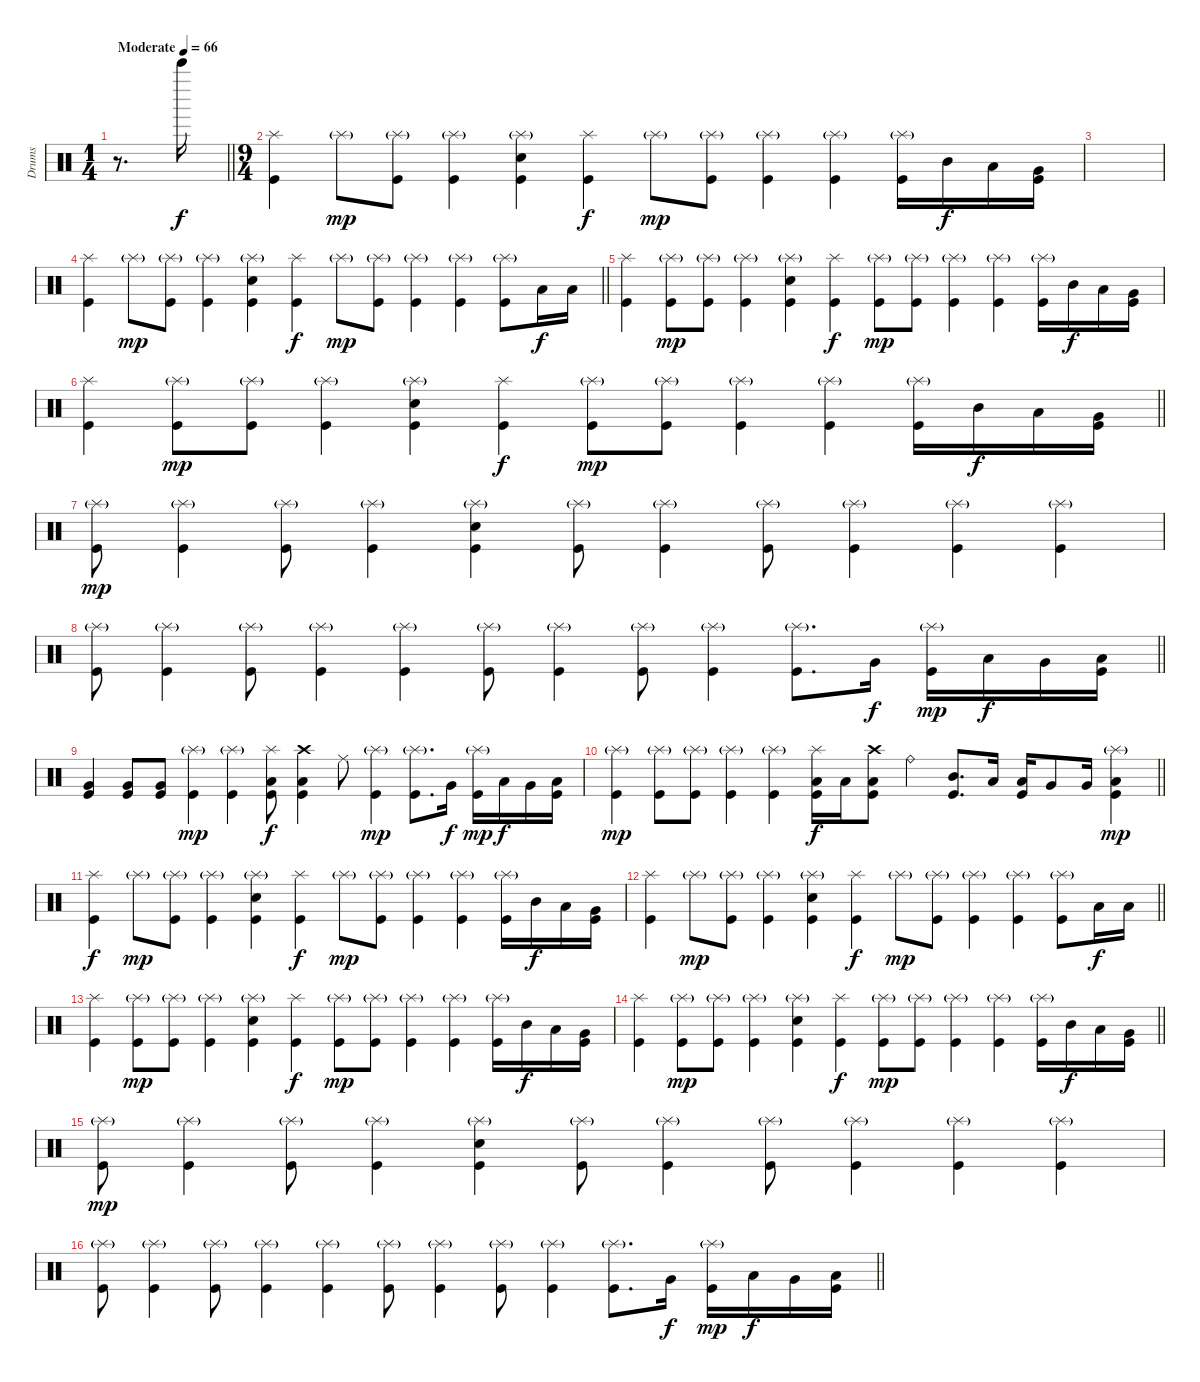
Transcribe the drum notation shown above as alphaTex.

\track ("Drums" "Drums") {instrument percussion}
\staff
\articulation defaults
\ts (1 4)
\tempo (66 "Moderate")
\clef neutral
\barLineRight lightlight
\ks c
r.8{d dy f} "Bell Tree (hit)".16 |
\ts (9 4)
("Splash (hit)" "Kick (hit)").4 "Splash (hit)"{g}.8{dy mp} ("Splash (hit)"{g} "Kick (hit)").8 ("Splash (hit)"{g} "Kick (hit)").4 ("Splash (hit)"{g} "Electric Snare (hit)" "Kick (hit)").4 ("Splash (hit)" "Kick (hit)").4{dy f} "Splash (hit)"{g}.8{dy mp} ("Splash (hit)"{g} "Kick (hit)").8 ("Splash (hit)"{g} "Kick (hit)").4 ("Splash (hit)"{g} "Kick (hit)").4 ("Splash (hit)"{g} "Kick (hit)").16 "Mid Tom (hit)".16{dy f} "Low Tom (hit)".16 ("Very Low Tom (hit)" "Kick (hit)").16 |
|
\barLineRight lightlight
("Splash (hit)" "Kick (hit)").4 "Splash (hit)"{g}.8{dy mp} ("Splash (hit)"{g} "Kick (hit)").8 ("Splash (hit)"{g} "Kick (hit)").4 ("Splash (hit)"{g} "Electric Snare (hit)" "Kick (hit)").4 ("Splash (hit)" "Kick (hit)").4{dy f} "Splash (hit)"{g}.8{dy mp} ("Splash (hit)"{g} "Kick (hit)").8 ("Splash (hit)"{g} "Kick (hit)").4 ("Splash (hit)"{g} "Kick (hit)").4 ("Splash (hit)"{g} "Kick (hit)").8 "Low Tom (hit)".16{dy f} "Low Tom (hit)".16 |
("Splash (hit)" "Kick (hit)").4 ("Splash (hit)"{g} "Kick (hit)").8{dy mp} ("Splash (hit)"{g} "Kick (hit)").8 ("Splash (hit)"{g} "Kick (hit)").4 ("Splash (hit)"{g} "Electric Snare (hit)" "Kick (hit)").4 ("Splash (hit)" "Kick (hit)").4{dy f} ("Splash (hit)"{g} "Kick (hit)").8{dy mp} ("Splash (hit)"{g} "Kick (hit)").8 ("Splash (hit)"{g} "Kick (hit)").4 ("Splash (hit)"{g} "Kick (hit)").4 ("Splash (hit)"{g} "Kick (hit)").16 "Mid Tom (hit)".16{dy f} "Low Tom (hit)".16 ("Very Low Tom (hit)" "Kick (hit)").16 |
\barLineRight lightlight
("Splash (hit)" "Kick (hit)").4 ("Splash (hit)"{g} "Kick (hit)").8{dy mp} ("Splash (hit)"{g} "Kick (hit)").8 ("Splash (hit)"{g} "Kick (hit)").4 ("Splash (hit)"{g} "Electric Snare (hit)" "Kick (hit)").4 ("Splash (hit)" "Kick (hit)").4{dy f} ("Splash (hit)"{g} "Kick (hit)").8{dy mp} ("Splash (hit)"{g} "Kick (hit)").8 ("Splash (hit)"{g} "Kick (hit)").4 ("Splash (hit)"{g} "Kick (hit)").4 ("Splash (hit)"{g} "Kick (hit)").16 "Mid Tom (hit)".16{dy f} "Low Tom (hit)".16 ("Very Low Tom (hit)" "Kick (hit)").16 |
("Splash (hit)"{g} "Kick (hit)").8{dy mp} ("Splash (hit)"{g} "Kick (hit)").4 ("Splash (hit)"{g} "Kick (hit)").8 ("Splash (hit)"{g} "Kick (hit)").4 ("Splash (hit)"{g} "Electric Snare (hit)" "Kick (hit)").4 ("Splash (hit)"{g} "Kick (hit)").8 ("Splash (hit)"{g} "Kick (hit)").4 ("Splash (hit)"{g} "Kick (hit)").8 ("Splash (hit)"{g} "Kick (hit)").4 ("Splash (hit)"{g} "Kick (hit)").4 ("Splash (hit)"{g} "Kick (hit)").4 |
\barLineRight lightlight
("Splash (hit)"{g} "Kick (hit)").8 ("Splash (hit)"{g} "Kick (hit)").4 ("Splash (hit)"{g} "Kick (hit)").8 ("Splash (hit)"{g} "Kick (hit)").4 ("Splash (hit)"{g} "Kick (hit)").4 ("Splash (hit)"{g} "Kick (hit)").8 ("Splash (hit)"{g} "Kick (hit)").4 ("Splash (hit)"{g} "Kick (hit)").8 ("Splash (hit)"{g} "Kick (hit)").4 ("Splash (hit)"{g} "Kick (hit)").8{d} "Very Low Tom (hit)".16{dy f} ("Splash (hit)"{g} "Kick (hit)").16{dy mp} "Low Floor Tom (hit)".16{dy f} "Very Low Tom (hit)".16 ("Low Tom (hit)" "Kick (hit)").16 |
("Very Low Tom (hit)" "Kick (hit)").4 ("Very Low Tom (hit)" "Kick (hit)").8 ("Very Low Tom (hit)" "Kick (hit)").8 ("Splash (hit)"{g} "Kick (hit)").4{dy mp} ("Splash (hit)"{g} "Kick (hit)").4 ("Splash (hit)" "Low Floor Tom (hit)" "Kick (hit)").8{dy f} ("Crash high (hit)" "Low Floor Tom (hit)" "Kick (hit)").4 "Ride (middle)".8 ("Splash (hit)"{g} "Kick (hit)").4{dy mp} ("Splash (hit)"{g} "Kick (hit)").8{d} "Very Low Tom (hit)".16{dy f} ("Splash (hit)"{g} "Kick (hit)").16{dy mp} "Low Floor Tom (hit)".16{dy f} "Very Low Tom (hit)".16 ("Low Tom (hit)" "Kick (hit)").16 |
\barLineRight lightlight
("Splash (hit)"{g} "Kick (hit)").4{dy mp} ("Splash (hit)"{g} "Kick (hit)").8 ("Splash (hit)"{g} "Kick (hit)").8 ("Splash (hit)"{g} "Kick (hit)").4 ("Splash (hit)"{g} "Kick (hit)").4 ("Splash (hit)" "Low Floor Tom (hit)" "Kick (hit)").16{dy f} "Low Floor Tom (hit)".16 ("Crash high (hit)" "Low Floor Tom (hit)" "Kick (hit)").8 "Ride (bell)".4 ("Mid Tom (hit)" "Kick (hit)").8{d} "Low Tom (hit)".16 ("Low Tom (hit)" "Kick (hit)").16 "Very Low Tom (hit)".8 "Very Low Tom (hit)".16 ("Splash (hit)"{g} "Low Floor Tom (hit)" "Kick (hit)").4{dy mp} |
\section ("" "")
("Splash (hit)" "Kick (hit)").4{dy f} "Splash (hit)"{g}.8{dy mp} ("Splash (hit)"{g} "Kick (hit)").8 ("Splash (hit)"{g} "Kick (hit)").4 ("Splash (hit)"{g} "Electric Snare (hit)" "Kick (hit)").4 ("Splash (hit)" "Kick (hit)").4{dy f} "Splash (hit)"{g}.8{dy mp} ("Splash (hit)"{g} "Kick (hit)").8 ("Splash (hit)"{g} "Kick (hit)").4 ("Splash (hit)"{g} "Kick (hit)").4 ("Splash (hit)"{g} "Kick (hit)").16 "Mid Tom (hit)".16{dy f} "Low Tom (hit)".16 ("Very Low Tom (hit)" "Kick (hit)").16 |
\barLineRight lightlight
("Splash (hit)" "Kick (hit)").4 "Splash (hit)"{g}.8{dy mp} ("Splash (hit)"{g} "Kick (hit)").8 ("Splash (hit)"{g} "Kick (hit)").4 ("Splash (hit)"{g} "Electric Snare (hit)" "Kick (hit)").4 ("Splash (hit)" "Kick (hit)").4{dy f} "Splash (hit)"{g}.8{dy mp} ("Splash (hit)"{g} "Kick (hit)").8 ("Splash (hit)"{g} "Kick (hit)").4 ("Splash (hit)"{g} "Kick (hit)").4 ("Splash (hit)"{g} "Kick (hit)").8 "Low Tom (hit)".16{dy f} "Low Tom (hit)".16 |
("Splash (hit)" "Kick (hit)").4 ("Splash (hit)"{g} "Kick (hit)").8{dy mp} ("Splash (hit)"{g} "Kick (hit)").8 ("Splash (hit)"{g} "Kick (hit)").4 ("Splash (hit)"{g} "Electric Snare (hit)" "Kick (hit)").4 ("Splash (hit)" "Kick (hit)").4{dy f} ("Splash (hit)"{g} "Kick (hit)").8{dy mp} ("Splash (hit)"{g} "Kick (hit)").8 ("Splash (hit)"{g} "Kick (hit)").4 ("Splash (hit)"{g} "Kick (hit)").4 ("Splash (hit)"{g} "Kick (hit)").16 "Mid Tom (hit)".16{dy f} "Low Tom (hit)".16 ("Very Low Tom (hit)" "Kick (hit)").16 |
\barLineRight lightlight
("Splash (hit)" "Kick (hit)").4 ("Splash (hit)"{g} "Kick (hit)").8{dy mp} ("Splash (hit)"{g} "Kick (hit)").8 ("Splash (hit)"{g} "Kick (hit)").4 ("Splash (hit)"{g} "Electric Snare (hit)" "Kick (hit)").4 ("Splash (hit)" "Kick (hit)").4{dy f} ("Splash (hit)"{g} "Kick (hit)").8{dy mp} ("Splash (hit)"{g} "Kick (hit)").8 ("Splash (hit)"{g} "Kick (hit)").4 ("Splash (hit)"{g} "Kick (hit)").4 ("Splash (hit)"{g} "Kick (hit)").16 "Mid Tom (hit)".16{dy f} "Low Tom (hit)".16 ("Very Low Tom (hit)" "Kick (hit)").16 |
("Splash (hit)"{g} "Kick (hit)").8{dy mp} ("Splash (hit)"{g} "Kick (hit)").4 ("Splash (hit)"{g} "Kick (hit)").8 ("Splash (hit)"{g} "Kick (hit)").4 ("Splash (hit)"{g} "Electric Snare (hit)" "Kick (hit)").4 ("Splash (hit)"{g} "Kick (hit)").8 ("Splash (hit)"{g} "Kick (hit)").4 ("Splash (hit)"{g} "Kick (hit)").8 ("Splash (hit)"{g} "Kick (hit)").4 ("Splash (hit)"{g} "Kick (hit)").4 ("Splash (hit)"{g} "Kick (hit)").4 |
\barLineRight lightlight
("Splash (hit)"{g} "Kick (hit)").8 ("Splash (hit)"{g} "Kick (hit)").4 ("Splash (hit)"{g} "Kick (hit)").8 ("Splash (hit)"{g} "Kick (hit)").4 ("Splash (hit)"{g} "Kick (hit)").4 ("Splash (hit)"{g} "Kick (hit)").8 ("Splash (hit)"{g} "Kick (hit)").4 ("Splash (hit)"{g} "Kick (hit)").8 ("Splash (hit)"{g} "Kick (hit)").4 ("Splash (hit)"{g} "Kick (hit)").8{d} "Very Low Tom (hit)".16{dy f} ("Splash (hit)"{g} "Kick (hit)").16{dy mp} "Low Floor Tom (hit)".16{dy f} "Very Low Tom (hit)".16 ("Low Tom (hit)" "Kick (hit)").16
